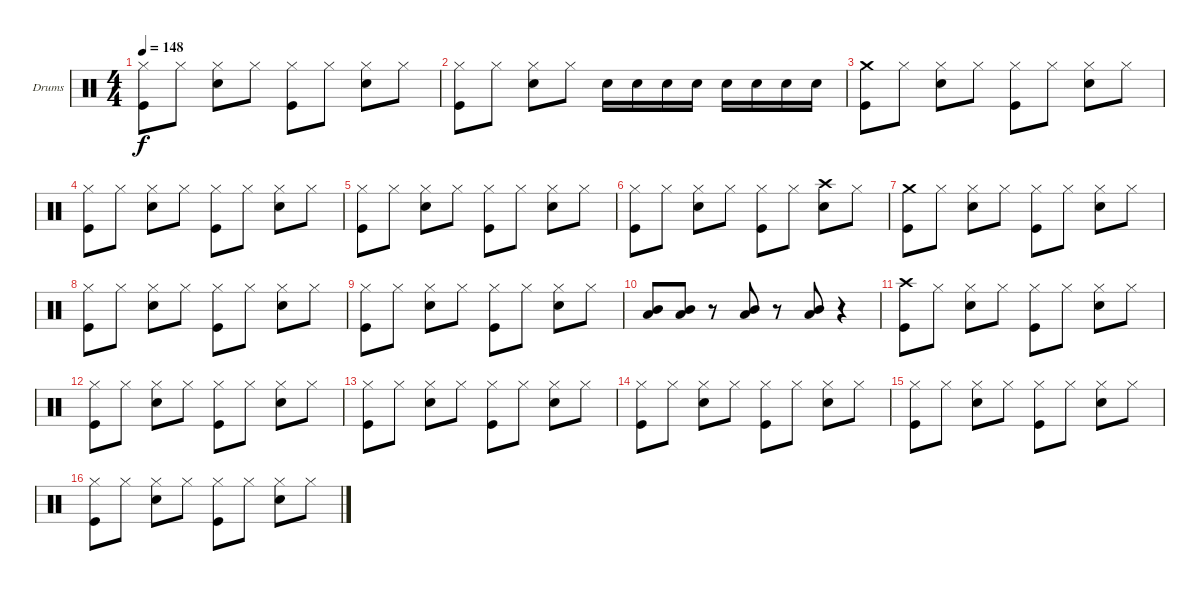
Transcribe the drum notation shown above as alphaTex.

\defaultSystemsLayout 4
\bracketExtendMode groupsimilarinstruments
\firstSystemTrackNameOrientation horizontal
\otherSystemsTrackNameOrientation horizontal
\track ("Нюта" "Drums") {instrument percussion}
\staff {score}
\articulation defaults
\ts (4 4)
\tempo 148
\clef neutral
\scale
0.333333
\ks c
("Hi-Hat (closed)" "Kick (hit)").8{dy f} "Hi-Hat (closed)".8 ("Hi-Hat (closed)" "Snare (hit) 2").8 "Hi-Hat (closed)".8 ("Hi-Hat (closed)" "Kick (hit)").8 "Hi-Hat (closed)".8 ("Hi-Hat (closed)" "Snare (hit) 2").8 "Hi-Hat (closed)".8 |
\scale
0.333333 ("Hi-Hat (closed)" "Kick (hit)").8 "Hi-Hat (closed)".8 ("Hi-Hat (closed)" "Snare (hit) 2").8 "Hi-Hat (closed)".8 "Snare (hit) 2".16 "Snare (hit) 2".16 "Snare (hit) 2".16 "Snare (hit) 2".16 "Snare (hit) 2".16 "Snare (hit) 2".16 "Snare (hit) 2".16 "Snare (hit) 2".16 |
\scale
0.333333 ("Crash medium (hit)" "Kick (hit)").8 "Hi-Hat (closed)".8 ("Hi-Hat (closed)" "Snare (hit) 2").8 "Hi-Hat (closed)".8 ("Hi-Hat (closed)" "Kick (hit)").8 "Hi-Hat (closed)".8 ("Hi-Hat (closed)" "Snare (hit) 2").8 "Hi-Hat (closed)".8 |
\scale
0.333333 ("Hi-Hat (closed)" "Kick (hit)").8 "Hi-Hat (closed)".8 ("Hi-Hat (closed)" "Snare (hit) 2").8 "Hi-Hat (closed)".8 ("Hi-Hat (closed)" "Kick (hit)").8 "Hi-Hat (closed)".8 ("Hi-Hat (closed)" "Snare (hit) 2").8 "Hi-Hat (closed)".8 |
\scale
0.333333 ("Hi-Hat (closed)" "Kick (hit)").8 "Hi-Hat (closed)".8 ("Hi-Hat (closed)" "Snare (hit) 2").8 "Hi-Hat (closed)".8 ("Hi-Hat (closed)" "Kick (hit)").8 "Hi-Hat (closed)".8 ("Hi-Hat (closed)" "Snare (hit) 2").8 "Hi-Hat (closed)".8 |
\scale
0.333333 ("Hi-Hat (closed)" "Kick (hit)").8 "Hi-Hat (closed)".8 ("Hi-Hat (closed)" "Snare (hit) 2").8 "Hi-Hat (closed)".8 ("Hi-Hat (closed)" "Kick (hit)").8 "Hi-Hat (closed)".8 ("Crash high (hit)" "Snare (hit) 2").8 "Hi-Hat (closed)".8 |
\scale
0.333333 ("Crash medium (hit)" "Kick (hit)").8 "Hi-Hat (closed)".8 ("Hi-Hat (closed)" "Snare (hit) 2").8 "Hi-Hat (closed)".8 ("Hi-Hat (closed)" "Kick (hit)").8 "Hi-Hat (closed)".8 ("Hi-Hat (closed)" "Snare (hit) 2").8 "Hi-Hat (closed)".8 |
("Hi-Hat (closed)" "Kick (hit)").8 "Hi-Hat (closed)".8 ("Hi-Hat (closed)" "Snare (hit) 2").8 "Hi-Hat (closed)".8 ("Hi-Hat (closed)" "Kick (hit)").8 "Hi-Hat (closed)".8 ("Hi-Hat (closed)" "Snare (hit) 2").8 "Hi-Hat (closed)".8 |
\scale
0.333333 ("Hi-Hat (closed)" "Kick (hit)").8 "Hi-Hat (closed)".8 ("Hi-Hat (closed)" "Snare (hit) 2").8 "Hi-Hat (closed)".8 ("Hi-Hat (closed)" "Kick (hit)").8 "Hi-Hat (closed)".8 ("Hi-Hat (closed)" "Snare (hit) 2").8 "Hi-Hat (closed)".8 |
\scale
0.333333 ("Mid Tom (hit)" "Low Tom (hit)").8 ("Mid Tom (hit)" "Low Tom (hit)").8 r.8 ("Mid Tom (hit)" "Low Tom (hit)").8 r.8 ("Mid Tom (hit)" "Low Tom (hit)").8 r.4 |
\scale
0.333333 ("Crash high (hit)" "Kick (hit)").8 "Hi-Hat (closed)".8 ("Hi-Hat (closed)" "Snare (hit) 2").8 "Hi-Hat (closed)".8 ("Hi-Hat (closed)" "Kick (hit)").8 "Hi-Hat (closed)".8 ("Hi-Hat (closed)" "Snare (hit) 2").8 "Hi-Hat (closed)".8 |
\scale
0.333333 ("Hi-Hat (closed)" "Kick (hit)").8 "Hi-Hat (closed)".8 ("Hi-Hat (closed)" "Snare (hit) 2").8 "Hi-Hat (closed)".8 ("Hi-Hat (closed)" "Kick (hit)").8 "Hi-Hat (closed)".8 ("Hi-Hat (closed)" "Snare (hit) 2").8 "Hi-Hat (closed)".8 |
\scale
0.333333 ("Hi-Hat (closed)" "Kick (hit)").8 "Hi-Hat (closed)".8 ("Hi-Hat (closed)" "Snare (hit) 2").8 "Hi-Hat (closed)".8 ("Hi-Hat (closed)" "Kick (hit)").8 "Hi-Hat (closed)".8 ("Hi-Hat (closed)" "Snare (hit) 2").8 "Hi-Hat (closed)".8 |
\scale
0.333333 ("Hi-Hat (closed)" "Kick (hit)").8 "Hi-Hat (closed)".8 ("Hi-Hat (closed)" "Snare (hit) 2").8 "Hi-Hat (closed)".8 ("Hi-Hat (closed)" "Kick (hit)").8 "Hi-Hat (closed)".8 ("Hi-Hat (closed)" "Snare (hit) 2").8 "Hi-Hat (closed)".8 |
\scale
0.333333 ("Hi-Hat (closed)" "Kick (hit)").8 "Hi-Hat (closed)".8 ("Hi-Hat (closed)" "Snare (hit) 2").8 "Hi-Hat (closed)".8 ("Hi-Hat (closed)" "Kick (hit)").8 "Hi-Hat (closed)".8 ("Hi-Hat (closed)" "Snare (hit) 2").8 "Hi-Hat (closed)".8 |
\scale
0.333333 ("Hi-Hat (closed)" "Kick (hit)").8 "Hi-Hat (closed)".8 ("Hi-Hat (closed)" "Snare (hit) 2").8 "Hi-Hat (closed)".8 ("Hi-Hat (closed)" "Kick (hit)").8 "Hi-Hat (closed)".8 ("Hi-Hat (closed)" "Snare (hit) 2").8 "Hi-Hat (closed)".8
